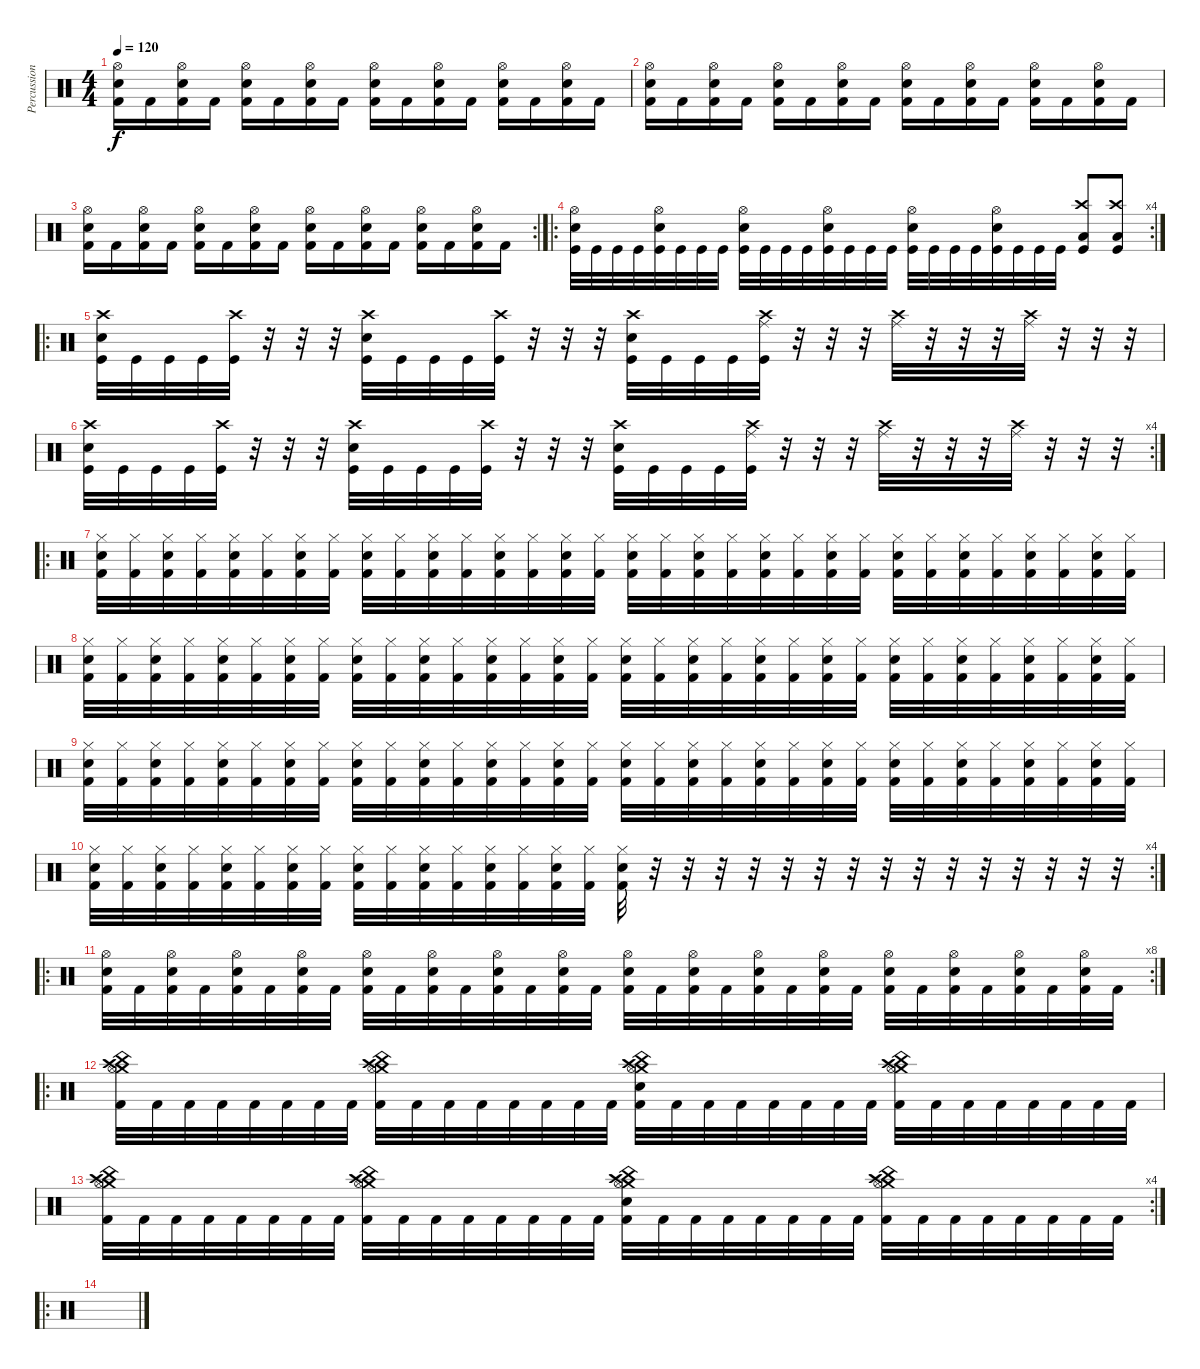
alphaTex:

\track ("Percussions" "Percussion") {instrument percussion}
\staff {score}
\articulation defaults
\ts (4 4)
\tempo 120
\clef neutral
\ks c
("Hi-Hat (open)" "Electric Snare (hit)" "Kick (hit) 2").16{dy f} "Kick (hit) 2".16 ("Hi-Hat (open)" "Electric Snare (hit)" "Kick (hit) 2").16 "Kick (hit) 2".16 ("Hi-Hat (open)" "Electric Snare (hit)" "Kick (hit) 2").16 "Kick (hit) 2".16 ("Hi-Hat (open)" "Electric Snare (hit)" "Kick (hit) 2").16 "Kick (hit) 2".16 ("Hi-Hat (open)" "Electric Snare (hit)" "Kick (hit) 2").16 "Kick (hit) 2".16 ("Hi-Hat (open)" "Electric Snare (hit)" "Kick (hit) 2").16 "Kick (hit) 2".16 ("Hi-Hat (open)" "Electric Snare (hit)" "Kick (hit) 2").16 "Kick (hit) 2".16 ("Hi-Hat (open)" "Electric Snare (hit)" "Kick (hit) 2").16 "Kick (hit) 2".16 |
("Hi-Hat (open)" "Electric Snare (hit)" "Kick (hit) 2").16 "Kick (hit) 2".16 ("Hi-Hat (open)" "Electric Snare (hit)" "Kick (hit) 2").16 "Kick (hit) 2".16 ("Hi-Hat (open)" "Electric Snare (hit)" "Kick (hit) 2").16 "Kick (hit) 2".16 ("Hi-Hat (open)" "Electric Snare (hit)" "Kick (hit) 2").16 "Kick (hit) 2".16 ("Hi-Hat (open)" "Electric Snare (hit)" "Kick (hit) 2").16 "Kick (hit) 2".16 ("Hi-Hat (open)" "Electric Snare (hit)" "Kick (hit) 2").16 "Kick (hit) 2".16 ("Hi-Hat (open)" "Electric Snare (hit)" "Kick (hit) 2").16 "Kick (hit) 2".16 ("Hi-Hat (open)" "Electric Snare (hit)" "Kick (hit) 2").16 "Kick (hit) 2".16 |
\rc 2
("Hi-Hat (open)" "Electric Snare (hit)" "Kick (hit) 2").16 "Kick (hit) 2".16 ("Hi-Hat (open)" "Electric Snare (hit)" "Kick (hit) 2").16 "Kick (hit) 2".16 ("Hi-Hat (open)" "Electric Snare (hit)" "Kick (hit) 2").16 "Kick (hit) 2".16 ("Hi-Hat (open)" "Electric Snare (hit)" "Kick (hit) 2").16 "Kick (hit) 2".16 ("Hi-Hat (open)" "Electric Snare (hit)" "Kick (hit) 2").16 "Kick (hit) 2".16 ("Hi-Hat (open)" "Electric Snare (hit)" "Kick (hit) 2").16 "Kick (hit) 2".16 ("Hi-Hat (open)" "Electric Snare (hit)" "Kick (hit) 2").16 "Kick (hit) 2".16 ("Hi-Hat (open)" "Electric Snare (hit)" "Kick (hit) 2").16 "Kick (hit) 2".16 |
\ro
\rc 4
("Hi-Hat (open)" "Electric Snare (hit)" "Kick (hit)").32 "Kick (hit)".32 "Kick (hit)".32 "Kick (hit)".32 ("Hi-Hat (open)" "Electric Snare (hit)" "Kick (hit)").32 "Kick (hit)".32 "Kick (hit)".32 "Kick (hit)".32 ("Hi-Hat (open)" "Electric Snare (hit)" "Kick (hit)").32 "Kick (hit)".32 "Kick (hit)".32 "Kick (hit)".32 ("Hi-Hat (open)" "Electric Snare (hit)" "Kick (hit)").32 "Kick (hit)".32 "Kick (hit)".32 "Kick (hit)".32 ("Hi-Hat (open)" "Electric Snare (hit)" "Kick (hit)").32 "Kick (hit)".32 "Kick (hit)".32 "Kick (hit)".32 ("Hi-Hat (open)" "Electric Snare (hit)" "Kick (hit)").32 "Kick (hit)".32 "Kick (hit)".32 "Kick (hit)".32 ("Crash high (hit)" "Low Floor Tom (hit)" "Kick (hit)").8 ("Crash high (hit)" "Low Floor Tom (hit)" "Kick (hit)").8 |
\ro
("Crash high (hit)" "Electric Snare (hit)" "Kick (hit)").32 "Kick (hit)".32 "Kick (hit)".32 "Kick (hit)".32 ("Crash high (hit)" "Kick (hit)").32 r.32 r.32 r.32 ("Crash high (hit)" "Electric Snare (hit)" "Kick (hit)").32 "Kick (hit)".32 "Kick (hit)".32 "Kick (hit)".32 ("Crash high (hit)" "Kick (hit)").32 r.32 r.32 r.32 ("Crash high (hit)" "Electric Snare (hit)" "Kick (hit)").32 "Kick (hit)".32 "Kick (hit)".32 "Kick (hit)".32 ("Crash high (hit)" "Ride (middle)" "Kick (hit)").32 r.32 r.32 r.32 ("Crash high (hit)" "Ride (middle)").32 r.32 r.32 r.32 ("Crash high (hit)" "Ride (middle)").32 r.32 r.32 r.32 |
\rc 4
("Crash high (hit)" "Electric Snare (hit)" "Kick (hit)").32 "Kick (hit)".32 "Kick (hit)".32 "Kick (hit)".32 ("Crash high (hit)" "Kick (hit)").32 r.32 r.32 r.32 ("Crash high (hit)" "Electric Snare (hit)" "Kick (hit)").32 "Kick (hit)".32 "Kick (hit)".32 "Kick (hit)".32 ("Crash high (hit)" "Kick (hit)").32 r.32 r.32 r.32 ("Crash high (hit)" "Electric Snare (hit)" "Kick (hit)").32 "Kick (hit)".32 "Kick (hit)".32 "Kick (hit)".32 ("Crash high (hit)" "Ride (middle)" "Kick (hit)").32 r.32 r.32 r.32 ("Crash high (hit)" "Ride (middle)").32 r.32 r.32 r.32 ("Crash high (hit)" "Ride (middle)").32 r.32 r.32 r.32 |
\ro
("Kick (hit) 2" "Electric Snare (hit)" "Hi-Hat (closed)").32 ("Kick (hit) 2" "Hi-Hat (closed)").32 ("Kick (hit) 2" "Electric Snare (hit)" "Hi-Hat (closed)").32 ("Kick (hit) 2" "Hi-Hat (closed)").32 ("Kick (hit) 2" "Electric Snare (hit)" "Hi-Hat (closed)").32 ("Kick (hit) 2" "Hi-Hat (closed)").32 ("Kick (hit) 2" "Electric Snare (hit)" "Hi-Hat (closed)").32 ("Kick (hit) 2" "Hi-Hat (closed)").32 ("Kick (hit) 2" "Electric Snare (hit)" "Hi-Hat (closed)").32 ("Kick (hit) 2" "Hi-Hat (closed)").32 ("Kick (hit) 2" "Electric Snare (hit)" "Hi-Hat (closed)").32 ("Kick (hit) 2" "Hi-Hat (closed)").32 ("Kick (hit) 2" "Electric Snare (hit)" "Hi-Hat (closed)").32 ("Kick (hit) 2" "Hi-Hat (closed)").32 ("Kick (hit) 2" "Electric Snare (hit)" "Hi-Hat (closed)").32 ("Kick (hit) 2" "Hi-Hat (closed)").32 ("Kick (hit) 2" "Electric Snare (hit)" "Hi-Hat (closed)").32 ("Kick (hit) 2" "Hi-Hat (closed)").32 ("Kick (hit) 2" "Electric Snare (hit)" "Hi-Hat (closed)").32 ("Kick (hit) 2" "Hi-Hat (closed)").32 ("Kick (hit) 2" "Electric Snare (hit)" "Hi-Hat (closed)").32 ("Kick (hit) 2" "Hi-Hat (closed)").32 ("Kick (hit) 2" "Electric Snare (hit)" "Hi-Hat (closed)").32 ("Kick (hit) 2" "Hi-Hat (closed)").32 ("Kick (hit) 2" "Electric Snare (hit)" "Hi-Hat (closed)").32 ("Kick (hit) 2" "Hi-Hat (closed)").32 ("Kick (hit) 2" "Electric Snare (hit)" "Hi-Hat (closed)").32 ("Kick (hit) 2" "Hi-Hat (closed)").32 ("Kick (hit) 2" "Electric Snare (hit)" "Hi-Hat (closed)").32 ("Kick (hit) 2" "Hi-Hat (closed)").32 ("Kick (hit) 2" "Electric Snare (hit)" "Hi-Hat (closed)").32 ("Kick (hit) 2" "Hi-Hat (closed)").32 |
("Kick (hit) 2" "Electric Snare (hit)" "Hi-Hat (closed)").32 ("Kick (hit) 2" "Hi-Hat (closed)").32 ("Kick (hit) 2" "Electric Snare (hit)" "Hi-Hat (closed)").32 ("Kick (hit) 2" "Hi-Hat (closed)").32 ("Kick (hit) 2" "Electric Snare (hit)" "Hi-Hat (closed)").32 ("Kick (hit) 2" "Hi-Hat (closed)").32 ("Kick (hit) 2" "Electric Snare (hit)" "Hi-Hat (closed)").32 ("Kick (hit) 2" "Hi-Hat (closed)").32 ("Kick (hit) 2" "Electric Snare (hit)" "Hi-Hat (closed)").32 ("Kick (hit) 2" "Hi-Hat (closed)").32 ("Kick (hit) 2" "Electric Snare (hit)" "Hi-Hat (closed)").32 ("Kick (hit) 2" "Hi-Hat (closed)").32 ("Kick (hit) 2" "Electric Snare (hit)" "Hi-Hat (closed)").32 ("Kick (hit) 2" "Hi-Hat (closed)").32 ("Kick (hit) 2" "Electric Snare (hit)" "Hi-Hat (closed)").32 ("Kick (hit) 2" "Hi-Hat (closed)").32 ("Kick (hit) 2" "Electric Snare (hit)" "Hi-Hat (closed)").32 ("Kick (hit) 2" "Hi-Hat (closed)").32 ("Kick (hit) 2" "Electric Snare (hit)" "Hi-Hat (closed)").32 ("Kick (hit) 2" "Hi-Hat (closed)").32 ("Kick (hit) 2" "Electric Snare (hit)" "Hi-Hat (closed)").32 ("Kick (hit) 2" "Hi-Hat (closed)").32 ("Kick (hit) 2" "Electric Snare (hit)" "Hi-Hat (closed)").32 ("Kick (hit) 2" "Hi-Hat (closed)").32 ("Kick (hit) 2" "Electric Snare (hit)" "Hi-Hat (closed)").32 ("Kick (hit) 2" "Hi-Hat (closed)").32 ("Kick (hit) 2" "Electric Snare (hit)" "Hi-Hat (closed)").32 ("Kick (hit) 2" "Hi-Hat (closed)").32 ("Kick (hit) 2" "Electric Snare (hit)" "Hi-Hat (closed)").32 ("Kick (hit) 2" "Hi-Hat (closed)").32 ("Kick (hit) 2" "Electric Snare (hit)" "Hi-Hat (closed)").32 ("Kick (hit) 2" "Hi-Hat (closed)").32 |
("Kick (hit) 2" "Electric Snare (hit)" "Hi-Hat (closed)").32 ("Kick (hit) 2" "Hi-Hat (closed)").32 ("Kick (hit) 2" "Electric Snare (hit)" "Hi-Hat (closed)").32 ("Kick (hit) 2" "Hi-Hat (closed)").32 ("Kick (hit) 2" "Electric Snare (hit)" "Hi-Hat (closed)").32 ("Kick (hit) 2" "Hi-Hat (closed)").32 ("Kick (hit) 2" "Electric Snare (hit)" "Hi-Hat (closed)").32 ("Kick (hit) 2" "Hi-Hat (closed)").32 ("Kick (hit) 2" "Electric Snare (hit)" "Hi-Hat (closed)").32 ("Kick (hit) 2" "Hi-Hat (closed)").32 ("Kick (hit) 2" "Electric Snare (hit)" "Hi-Hat (closed)").32 ("Kick (hit) 2" "Hi-Hat (closed)").32 ("Kick (hit) 2" "Electric Snare (hit)" "Hi-Hat (closed)").32 ("Kick (hit) 2" "Hi-Hat (closed)").32 ("Kick (hit) 2" "Electric Snare (hit)" "Hi-Hat (closed)").32 ("Kick (hit) 2" "Hi-Hat (closed)").32 ("Kick (hit) 2" "Electric Snare (hit)" "Hi-Hat (closed)").32 ("Kick (hit) 2" "Hi-Hat (closed)").32 ("Kick (hit) 2" "Electric Snare (hit)" "Hi-Hat (closed)").32 ("Kick (hit) 2" "Hi-Hat (closed)").32 ("Kick (hit) 2" "Electric Snare (hit)" "Hi-Hat (closed)").32 ("Kick (hit) 2" "Hi-Hat (closed)").32 ("Kick (hit) 2" "Electric Snare (hit)" "Hi-Hat (closed)").32 ("Kick (hit) 2" "Hi-Hat (closed)").32 ("Kick (hit) 2" "Electric Snare (hit)" "Hi-Hat (closed)").32 ("Kick (hit) 2" "Hi-Hat (closed)").32 ("Kick (hit) 2" "Electric Snare (hit)" "Hi-Hat (closed)").32 ("Kick (hit) 2" "Hi-Hat (closed)").32 ("Kick (hit) 2" "Electric Snare (hit)" "Hi-Hat (closed)").32 ("Kick (hit) 2" "Hi-Hat (closed)").32 ("Kick (hit) 2" "Electric Snare (hit)" "Hi-Hat (closed)").32 ("Kick (hit) 2" "Hi-Hat (closed)").32 |
\rc 4
("Kick (hit) 2" "Electric Snare (hit)" "Hi-Hat (closed)").32 ("Kick (hit) 2" "Hi-Hat (closed)").32 ("Kick (hit) 2" "Electric Snare (hit)" "Hi-Hat (closed)").32 ("Kick (hit) 2" "Hi-Hat (closed)").32 ("Kick (hit) 2" "Electric Snare (hit)" "Hi-Hat (closed)").32 ("Kick (hit) 2" "Hi-Hat (closed)").32 ("Kick (hit) 2" "Electric Snare (hit)" "Hi-Hat (closed)").32 ("Kick (hit) 2" "Hi-Hat (closed)").32 ("Kick (hit) 2" "Electric Snare (hit)" "Hi-Hat (closed)").32 ("Kick (hit) 2" "Hi-Hat (closed)").32 ("Kick (hit) 2" "Electric Snare (hit)" "Hi-Hat (closed)").32 ("Kick (hit) 2" "Hi-Hat (closed)").32 ("Kick (hit) 2" "Electric Snare (hit)" "Hi-Hat (closed)").32 ("Kick (hit) 2" "Hi-Hat (closed)").32 ("Kick (hit) 2" "Electric Snare (hit)" "Hi-Hat (closed)").32 ("Kick (hit) 2" "Hi-Hat (closed)").32 ("Kick (hit) 2" "Electric Snare (hit)" "Hi-Hat (closed)").32 r.32 r.32 r.32 r.32 r.32 r.32 r.32 r.32 r.32 r.32 r.32 r.32 r.32 r.32 r.32 |
\ro
\rc 8
("Hi-Hat (open)" "Electric Snare (hit)" "Kick (hit) 2").32 "Kick (hit) 2".32 ("Hi-Hat (open)" "Electric Snare (hit)" "Kick (hit) 2").32 "Kick (hit) 2".32 ("Hi-Hat (open)" "Electric Snare (hit)" "Kick (hit) 2").32 "Kick (hit) 2".32 ("Hi-Hat (open)" "Electric Snare (hit)" "Kick (hit) 2").32 "Kick (hit) 2".32 ("Hi-Hat (open)" "Electric Snare (hit)" "Kick (hit) 2").32 "Kick (hit) 2".32 ("Hi-Hat (open)" "Electric Snare (hit)" "Kick (hit) 2").32 "Kick (hit) 2".32 ("Hi-Hat (open)" "Electric Snare (hit)" "Kick (hit) 2").32 "Kick (hit) 2".32 ("Hi-Hat (open)" "Electric Snare (hit)" "Kick (hit) 2").32 "Kick (hit) 2".32 ("Hi-Hat (open)" "Electric Snare (hit)" "Kick (hit) 2").32 "Kick (hit) 2".32 ("Hi-Hat (open)" "Electric Snare (hit)" "Kick (hit) 2").32 "Kick (hit) 2".32 ("Hi-Hat (open)" "Electric Snare (hit)" "Kick (hit) 2").32 "Kick (hit) 2".32 ("Hi-Hat (open)" "Electric Snare (hit)" "Kick (hit) 2").32 "Kick (hit) 2".32 ("Hi-Hat (open)" "Electric Snare (hit)" "Kick (hit) 2").32 "Kick (hit) 2".32 ("Hi-Hat (open)" "Electric Snare (hit)" "Kick (hit) 2").32 "Kick (hit) 2".32 ("Hi-Hat (open)" "Electric Snare (hit)" "Kick (hit) 2").32 "Kick (hit) 2".32 ("Hi-Hat (open)" "Electric Snare (hit)" "Kick (hit) 2").32 "Kick (hit) 2".32 |
\ro
("Crash medium (hit)" "Crash high (hit)" "China (hit)" "Hi-Hat (open)" "Kick (hit) 2").32 "Kick (hit) 2".32 "Kick (hit) 2".32 "Kick (hit) 2".32 "Kick (hit) 2".32 "Kick (hit) 2".32 "Kick (hit) 2".32 "Kick (hit) 2".32 ("Crash medium (hit)" "Crash high (hit)" "China (hit)" "Hi-Hat (open)" "Kick (hit) 2").32 "Kick (hit) 2".32 "Kick (hit) 2".32 "Kick (hit) 2".32 "Kick (hit) 2".32 "Kick (hit) 2".32 "Kick (hit) 2".32 "Kick (hit) 2".32 ("Crash medium (hit)" "Crash high (hit)" "China (hit)" "Hi-Hat (open)" "Electric Snare (hit)" "Kick (hit) 2").32 "Kick (hit) 2".32 "Kick (hit) 2".32 "Kick (hit) 2".32 "Kick (hit) 2".32 "Kick (hit) 2".32 "Kick (hit) 2".32 "Kick (hit) 2".32 ("Crash medium (hit)" "Crash high (hit)" "China (hit)" "Hi-Hat (open)" "Kick (hit) 2").32 "Kick (hit) 2".32 "Kick (hit) 2".32 "Kick (hit) 2".32 "Kick (hit) 2".32 "Kick (hit) 2".32 "Kick (hit) 2".32 "Kick (hit) 2".32 |
\rc 4
("Crash medium (hit)" "Crash high (hit)" "China (hit)" "Hi-Hat (open)" "Kick (hit) 2").32 "Kick (hit) 2".32 "Kick (hit) 2".32 "Kick (hit) 2".32 "Kick (hit) 2".32 "Kick (hit) 2".32 "Kick (hit) 2".32 "Kick (hit) 2".32 ("Crash medium (hit)" "Crash high (hit)" "China (hit)" "Hi-Hat (open)" "Kick (hit) 2").32 "Kick (hit) 2".32 "Kick (hit) 2".32 "Kick (hit) 2".32 "Kick (hit) 2".32 "Kick (hit) 2".32 "Kick (hit) 2".32 "Kick (hit) 2".32 ("Crash medium (hit)" "Crash high (hit)" "China (hit)" "Hi-Hat (open)" "Electric Snare (hit)" "Kick (hit) 2").32 "Kick (hit) 2".32 "Kick (hit) 2".32 "Kick (hit) 2".32 "Kick (hit) 2".32 "Kick (hit) 2".32 "Kick (hit) 2".32 "Kick (hit) 2".32 ("Crash medium (hit)" "Crash high (hit)" "China (hit)" "Hi-Hat (open)" "Kick (hit) 2").32 "Kick (hit) 2".32 "Kick (hit) 2".32 "Kick (hit) 2".32 "Kick (hit) 2".32 "Kick (hit) 2".32 "Kick (hit) 2".32 "Kick (hit) 2".32 |
\ro
